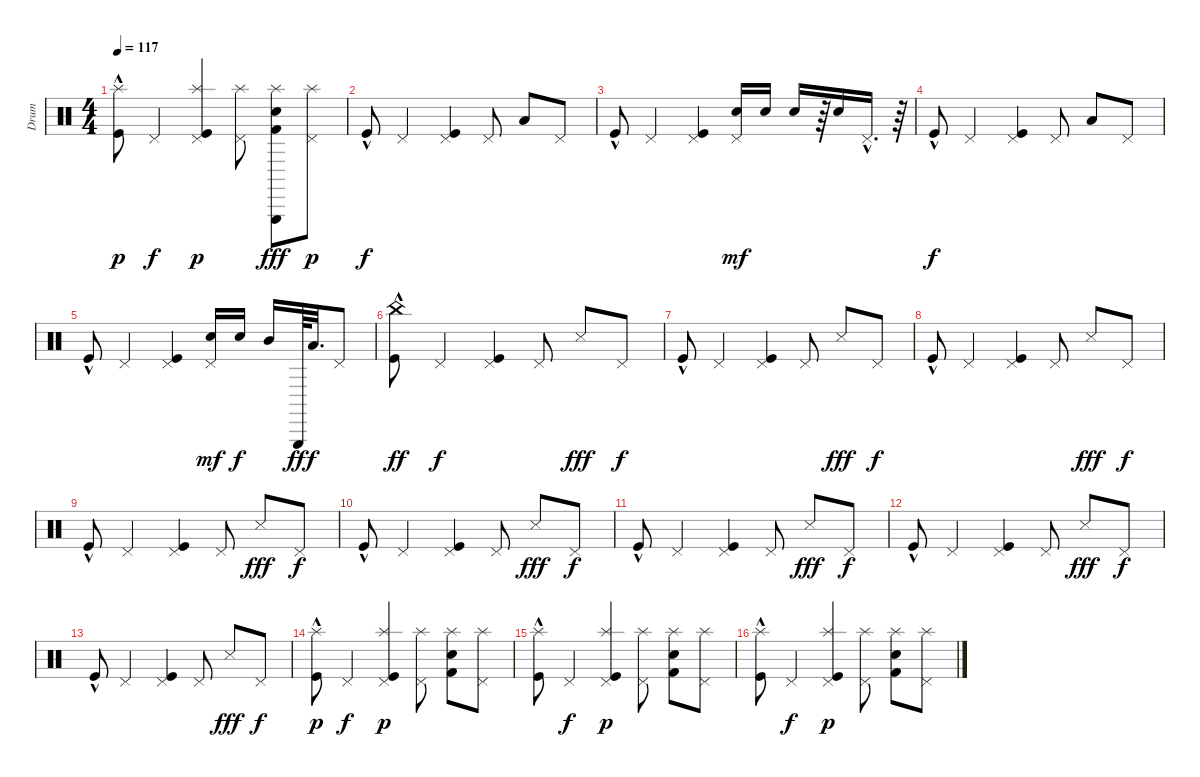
\track ("Drum" "Drum") {instrument percussion}
\staff {score}
\articulation defaults
\ts (4 4)
\tempo 117
\clef neutral
\ks c
("Kick (hit)"{hac} "Splash (hit)").8{dy p} "Pedal Hi-Hat (hit)".4{dy f} ("Pedal Hi-Hat (hit)" "Splash (hit)" "Kick (hit)").4{dy p} ("Pedal Hi-Hat (hit)" "Splash (hit)").8 ("Kick (hit) 2" "Splash (hit)" "Triangle (hit)" "Snare (hit) 2").8{dy fff} ("Pedal Hi-Hat (hit)" "Splash (hit)").8{dy p} |
"Kick (hit)"{hac}.8{dy f} "Pedal Hi-Hat (hit)".4 ("Pedal Hi-Hat (hit)" "Kick (hit)").4 "Pedal Hi-Hat (hit)".8 "Low Floor Tom (hit)".8 "Pedal Hi-Hat (hit)".8 |
"Kick (hit)"{hac}.8 "Pedal Hi-Hat (hit)".4 ("Pedal Hi-Hat (hit)" "Kick (hit)").4 ("Pedal Hi-Hat (hit)" "Electric Snare (hit)").16{dy mf} "Electric Snare (hit)".16 "Electric Snare (hit)".16 r.64 "Electric Snare (hit)".16 "Pedal Hi-Hat (hit)"{hac}.16{d} r.64 |
"Kick (hit)"{hac}.8{dy f} "Pedal Hi-Hat (hit)".4 ("Pedal Hi-Hat (hit)" "Kick (hit)").4 "Pedal Hi-Hat (hit)".8 "Low Floor Tom (hit)".8 "Pedal Hi-Hat (hit)".8 |
"Kick (hit)"{hac}.8 "Pedal Hi-Hat (hit)".4 ("Pedal Hi-Hat (hit)" "Kick (hit)").4 ("Pedal Hi-Hat (hit)" "Electric Snare (hit)").16{dy mf} "Electric Snare (hit)".16{dy f} "Mid Tom (hit)".16 "Triangle (hit)".64{dy ff} "Low Floor Tom (hit)".32{d dy f} "Pedal Hi-Hat (hit)".8 |
("China (hit)" "Kick (hit)"{hac}).8{dy ff} "Pedal Hi-Hat (hit)".4{dy f} ("Pedal Hi-Hat (hit)" "Kick (hit)").4 "Pedal Hi-Hat (hit)".8 "Snare (side stick) 3".8{dy fff} "Pedal Hi-Hat (hit)".8{dy f} |
"Kick (hit)"{hac}.8 "Pedal Hi-Hat (hit)".4 ("Pedal Hi-Hat (hit)" "Kick (hit)").4 "Pedal Hi-Hat (hit)".8 "Snare (side stick) 3".8{dy fff} "Pedal Hi-Hat (hit)".8{dy f} |
"Kick (hit)"{hac}.8 "Pedal Hi-Hat (hit)".4 ("Pedal Hi-Hat (hit)" "Kick (hit)").4 "Pedal Hi-Hat (hit)".8 "Snare (side stick) 3".8{dy fff} "Pedal Hi-Hat (hit)".8{dy f} |
"Kick (hit)"{hac}.8 "Pedal Hi-Hat (hit)".4 ("Pedal Hi-Hat (hit)" "Kick (hit)").4 "Pedal Hi-Hat (hit)".8 "Snare (side stick) 3".8{dy fff} "Pedal Hi-Hat (hit)".8{dy f} |
"Kick (hit)"{hac}.8 "Pedal Hi-Hat (hit)".4 ("Pedal Hi-Hat (hit)" "Kick (hit)").4 "Pedal Hi-Hat (hit)".8 "Snare (side stick) 3".8{dy fff} "Pedal Hi-Hat (hit)".8{dy f} |
"Kick (hit)"{hac}.8 "Pedal Hi-Hat (hit)".4 ("Pedal Hi-Hat (hit)" "Kick (hit)").4 "Pedal Hi-Hat (hit)".8 "Snare (side stick) 3".8{dy fff} "Pedal Hi-Hat (hit)".8{dy f} |
"Kick (hit)"{hac}.8 "Pedal Hi-Hat (hit)".4 ("Pedal Hi-Hat (hit)" "Kick (hit)").4 "Pedal Hi-Hat (hit)".8 "Snare (side stick) 3".8{dy fff} "Pedal Hi-Hat (hit)".8{dy f} |
"Kick (hit)"{hac}.8 "Pedal Hi-Hat (hit)".4 ("Pedal Hi-Hat (hit)" "Kick (hit)").4 "Pedal Hi-Hat (hit)".8 "Snare (side stick) 3".8{dy fff} "Pedal Hi-Hat (hit)".8{dy f} |
("Splash (hit)" "Kick (hit)"{hac}).8{dy p} "Pedal Hi-Hat (hit)".4{dy f} ("Splash (hit)" "Pedal Hi-Hat (hit)" "Kick (hit)").4{dy p} ("Splash (hit)" "Pedal Hi-Hat (hit)").8 ("Kick (hit) 2" "Splash (hit)" "Snare (hit) 2").8 ("Splash (hit)" "Pedal Hi-Hat (hit)").8 |
("Splash (hit)" "Kick (hit)"{hac}).8 "Pedal Hi-Hat (hit)".4{dy f} ("Splash (hit)" "Pedal Hi-Hat (hit)" "Kick (hit)").4{dy p} ("Splash (hit)" "Pedal Hi-Hat (hit)").8 ("Kick (hit) 2" "Splash (hit)" "Snare (hit) 2").8 ("Splash (hit)" "Pedal Hi-Hat (hit)").8 |
("Splash (hit)" "Kick (hit)"{hac}).8 "Pedal Hi-Hat (hit)".4{dy f} ("Splash (hit)" "Pedal Hi-Hat (hit)" "Kick (hit)").4{dy p} ("Splash (hit)" "Pedal Hi-Hat (hit)").8 ("Kick (hit) 2" "Splash (hit)" "Snare (hit) 2").8 ("Splash (hit)" "Pedal Hi-Hat (hit)").8
